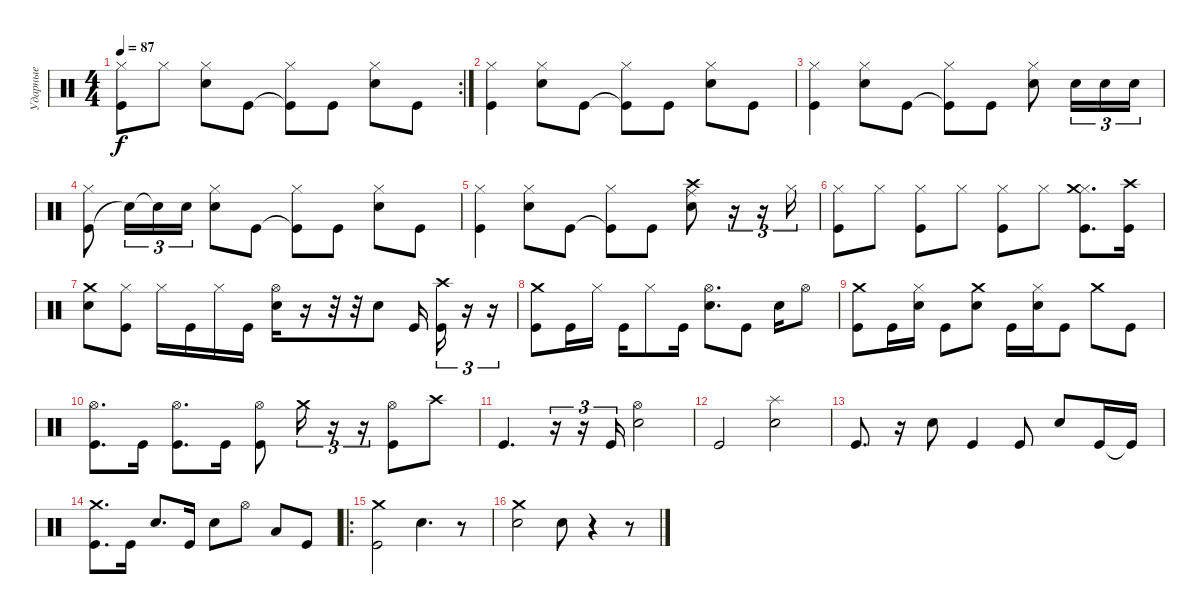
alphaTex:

\track ("Ударные" "Ударные") {instrument percussion}
\staff {score}
\articulation defaults
\rc 2
\ts (4 4)
\tempo 87
\clef neutral
\ks c
("Kick (hit)" "Hi-Hat (closed)").8{dy f} "Hi-Hat (closed)".8 ("Snare (hit) 2" "Hi-Hat (closed)").8 "Kick (hit)".8 ("Kick (hit)"{t} "Hi-Hat (closed)").8 "Kick (hit)".8 ("Snare (hit) 2" "Hi-Hat (closed)").8 "Kick (hit)".8 |
("Kick (hit)" "Hi-Hat (closed)").4 ("Snare (hit) 2" "Hi-Hat (closed)").8 "Kick (hit)".8 ("Kick (hit)"{t} "Hi-Hat (closed)").8 "Kick (hit)".8 ("Snare (hit) 2" "Hi-Hat (closed)").8 "Kick (hit)".8 |
("Kick (hit)" "Hi-Hat (closed)").4 ("Snare (hit) 2" "Hi-Hat (closed)").8 "Kick (hit)".8 ("Kick (hit)"{t} "Hi-Hat (closed)").8 "Kick (hit)".8 ("Snare (hit) 2" "Hi-Hat (closed)").8 "Snare (hit) 2".16{tu (3 2)} "Snare (hit) 2".16{tu (3 2)} "Snare (hit) 2".16{tu (3 2)} |
("Kick (hit)" "Hi-Hat (closed)").8 "Snare (hit) 2"{t}.16{tu (3 2)} "Snare (hit) 2"{t}.16{tu (3 2)} "Snare (hit) 2".16{tu (3 2)} ("Snare (hit) 2" "Hi-Hat (closed)").8 "Kick (hit)".8 ("Kick (hit)"{t} "Hi-Hat (closed)").8 "Kick (hit)".8 ("Snare (hit) 2" "Hi-Hat (closed)").8 "Kick (hit)".8 |
("Kick (hit)" "Hi-Hat (closed)").4 ("Snare (hit) 2" "Hi-Hat (closed)").8 "Kick (hit)".8 ("Kick (hit)"{t} "Hi-Hat (closed)").8 "Kick (hit)".8 ("Snare (hit) 2" "Ride (middle)" "Crash high (hit)").8 r.16{tu (3 2)} r.16{tu (3 2)} "Hi-Hat (closed)".16{tu (3 2)} |
("Kick (hit)" "Hi-Hat (closed)").8 "Hi-Hat (closed)".8 ("Kick (hit)" "Hi-Hat (closed)").8 "Hi-Hat (closed)".8 ("Kick (hit)" "Hi-Hat (closed)").8 "Hi-Hat (closed)".8 ("Kick (hit)" "Hi-Hat (closed)" "Crash medium (hit)").8{d} ("Kick (hit)" "Crash high (hit)").16 |
("Snare (hit) 2" "Crash medium (hit)").8 ("Kick (hit)" "Hi-Hat (closed)").8 "Hi-Hat (closed)".16 "Kick (hit)".16 "Hi-Hat (closed)".16 "Kick (hit)".16 ("Snare (hit) 2" "Hi-Hat (open)").16 r.16 r.32 r.32 "Snare (hit) 2".8 "Kick (hit)".16 ("Kick (hit)" "Crash high (hit)").16{tu (3 2)} r.16{tu (3 2)} r.16{tu (3 2)} |
("Kick (hit)" "Crash medium (hit)").8 "Kick (hit)".16 "Hi-Hat (closed)".16 "Kick (hit)".16 "Hi-Hat (closed)".8 "Kick (hit)".16 ("Snare (hit) 2" "Hi-Hat (open)").8{d} "Kick (hit)".8 "Snare (hit) 2".16 "Hi-Hat (open)".8 |
("Kick (hit)" "Crash medium (hit)").8 "Kick (hit)".16 ("Snare (hit) 2" "Hi-Hat (closed)").16 "Kick (hit)".8 ("Snare (hit) 2" "Crash medium (hit)").8 "Kick (hit)".16 ("Snare (hit) 2" "Hi-Hat (closed)").16 "Kick (hit)".8 "Crash medium (hit)".8 "Kick (hit)".8 |
("Kick (hit)" "Hi-Hat (open)").8{d} "Kick (hit)".16 ("Kick (hit)" "Hi-Hat (open)").8{d} "Kick (hit)".16 ("Kick (hit)" "Hi-Hat (open)").8 "Crash medium (hit)".16{tu (3 2)} r.16{tu (3 2)} r.16{tu (3 2)} ("Kick (hit)" "Hi-Hat (open)").8 "Crash high (hit)".8 |
"Kick (hit)".4{d} r.16{tu (3 2)} r.16{tu (3 2)} "Kick (hit)".16{tu (3 2)} ("Snare (hit) 2" "Hi-Hat (open)").2 |
"Kick (hit)".2 ("Snare (hit) 2" "Splash (hit)").2 |
"Kick (hit)".8{d} r.16 "Snare (hit) 2".8 "Kick (hit)".4 "Kick (hit)".8 "Snare (hit) 2".8 "Kick (hit)".16 "Kick (hit)"{t}.16 |
("Kick (hit)" "Crash medium (hit)").8{d} "Kick (hit)".16 "Snare (hit) 2".8{d} "Kick (hit)".16 "Snare (hit) 2".8 "Hi-Hat (open)".8 "Low Tom (hit)".8 "Kick (hit)".8 |
\ro
("Kick (hit)" "Crash medium (hit)").2 "Snare (hit) 2".4{d} r.8 |
("Snare (hit) 2" "Crash medium (hit)").2 "Snare (hit) 2".8 r.4 r.8
